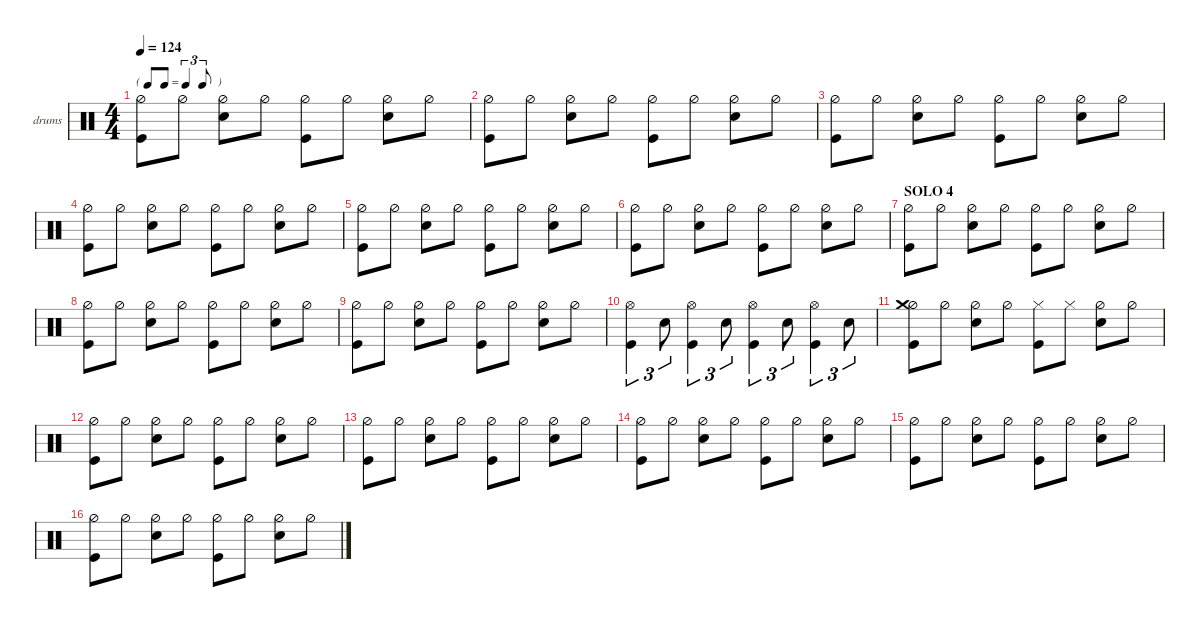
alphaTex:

\defaultSystemsLayout 4
\hideDynamics
\bracketExtendMode nobrackets
\firstSystemTrackNameOrientation horizontal
\otherSystemsTrackNameOrientation horizontal
\track ("drums" "drums") {instrument percussion}
\staff {score}
\articulation defaults
\ts (4 4)
\tf triplet8th
\tempo 124
\clef neutral
\scale
1.06392
\ks aminor
("Kick (hit)" "Hi-Hat (half)").8{dy mf} "Hi-Hat (half)".8 ("Hi-Hat (half)" "Snare (hit) 2").8 "Hi-Hat (half)".8 ("Kick (hit)" "Hi-Hat (half)").8 "Hi-Hat (half)".8 ("Hi-Hat (half)" "Snare (hit) 2").8 "Hi-Hat (half)".8 |
\scale
0.978695 ("Kick (hit)" "Hi-Hat (half)").8 "Hi-Hat (half)".8 ("Hi-Hat (half)" "Snare (hit) 2").8 "Hi-Hat (half)".8 ("Kick (hit)" "Hi-Hat (half)").8 "Hi-Hat (half)".8 ("Hi-Hat (half)" "Snare (hit) 2").8 "Hi-Hat (half)".8 |
\scale
0.978695 ("Kick (hit)" "Hi-Hat (half)").8 "Hi-Hat (half)".8 ("Hi-Hat (half)" "Snare (hit) 2").8 "Hi-Hat (half)".8 ("Kick (hit)" "Hi-Hat (half)").8 "Hi-Hat (half)".8 ("Hi-Hat (half)" "Snare (hit) 2").8 "Hi-Hat (half)".8 |
\scale
0.978695 ("Kick (hit)" "Hi-Hat (half)").8 "Hi-Hat (half)".8 ("Hi-Hat (half)" "Snare (hit) 2").8 "Hi-Hat (half)".8 ("Kick (hit)" "Hi-Hat (half)").8 "Hi-Hat (half)".8 ("Hi-Hat (half)" "Snare (hit) 2").8 "Hi-Hat (half)".8 |
\scale
1.05949 ("Kick (hit)" "Hi-Hat (half)").8 "Hi-Hat (half)".8 ("Hi-Hat (half)" "Snare (hit) 2").8 "Hi-Hat (half)".8 ("Kick (hit)" "Hi-Hat (half)").8 "Hi-Hat (half)".8 ("Hi-Hat (half)" "Snare (hit) 2").8 "Hi-Hat (half)".8 |
\scale
0.991958 ("Kick (hit)" "Hi-Hat (half)").8 "Hi-Hat (half)".8 ("Hi-Hat (half)" "Snare (hit) 2").8 "Hi-Hat (half)".8 ("Kick (hit)" "Hi-Hat (half)").8 "Hi-Hat (half)".8 ("Hi-Hat (half)" "Snare (hit) 2").8 "Hi-Hat (half)".8 |
\section ("" "SOLO 4")
\scale
0.974274 ("Kick (hit)" "Hi-Hat (half)").8 "Hi-Hat (half)".8 ("Hi-Hat (half)" "Snare (hit) 2").8 "Hi-Hat (half)".8 ("Kick (hit)" "Hi-Hat (half)").8 "Hi-Hat (half)".8 ("Hi-Hat (half)" "Snare (hit) 2").8 "Hi-Hat (half)".8 |
\scale
0.974274 ("Kick (hit)" "Hi-Hat (half)").8 "Hi-Hat (half)".8 ("Hi-Hat (half)" "Snare (hit) 2").8 "Hi-Hat (half)".8 ("Kick (hit)" "Hi-Hat (half)").8 "Hi-Hat (half)".8 ("Hi-Hat (half)" "Snare (hit) 2").8 "Hi-Hat (half)".8 |
\scale
1.06392 ("Kick (hit)" "Hi-Hat (half)").8 "Hi-Hat (half)".8 ("Hi-Hat (half)" "Snare (hit) 2").8 "Hi-Hat (half)".8 ("Kick (hit)" "Hi-Hat (half)").8 "Hi-Hat (half)".8 ("Hi-Hat (half)" "Snare (hit) 2").8 "Hi-Hat (half)".8 |
\scale
0.978695 ("Hi-Hat (open)" "Kick (hit)").4{tu (3 2)} "Snare (hit) 2".8{tu (3 2) dy p} ("Hi-Hat (open)" "Kick (hit)").4{tu (3 2) dy mf} "Snare (hit) 2".8{tu (3 2) dy p} ("Hi-Hat (open)" "Kick (hit)").4{tu (3 2) dy mf} "Snare (hit) 2".8{tu (3 2) dy p} ("Hi-Hat (open)" "Kick (hit)").4{tu (3 2) dy mf} "Snare (hit) 2".8{tu (3 2) dy p} |
\scale
0.978695 ("Kick (hit)" "Hi-Hat (half)" "Crash medium (hit)").8{dy mf} "Hi-Hat (half)".8 ("Hi-Hat (half)" "Snare (hit) 2").8 "Hi-Hat (half)".8 ("Kick (hit)" "Hi-Hat (closed)").8 "Hi-Hat (closed)".8 ("Hi-Hat (half)" "Snare (hit) 2").8 "Hi-Hat (half)".8 |
\scale
0.978695 ("Kick (hit)" "Hi-Hat (half)").8 "Hi-Hat (half)".8 ("Hi-Hat (half)" "Snare (hit) 2").8 "Hi-Hat (half)".8 ("Kick (hit)" "Hi-Hat (half)").8 "Hi-Hat (half)".8 ("Hi-Hat (half)" "Snare (hit) 2").8 "Hi-Hat (half)".8 |
\scale
1.06392 ("Kick (hit)" "Hi-Hat (half)").8 "Hi-Hat (half)".8 ("Hi-Hat (half)" "Snare (hit) 2").8 "Hi-Hat (half)".8 ("Kick (hit)" "Hi-Hat (half)").8 "Hi-Hat (half)".8 ("Hi-Hat (half)" "Snare (hit) 2").8 "Hi-Hat (half)".8 |
\scale
0.978695 ("Kick (hit)" "Hi-Hat (half)").8 "Hi-Hat (half)".8 ("Hi-Hat (half)" "Snare (hit) 2").8 "Hi-Hat (half)".8 ("Kick (hit)" "Hi-Hat (half)").8 "Hi-Hat (half)".8 ("Hi-Hat (half)" "Snare (hit) 2").8 "Hi-Hat (half)".8 |
\scale
0.978695 ("Kick (hit)" "Hi-Hat (half)").8 "Hi-Hat (half)".8 ("Hi-Hat (half)" "Snare (hit) 2").8 "Hi-Hat (half)".8 ("Kick (hit)" "Hi-Hat (half)").8 "Hi-Hat (half)".8 ("Hi-Hat (half)" "Snare (hit) 2").8 "Hi-Hat (half)".8 |
\scale
0.978695 ("Kick (hit)" "Hi-Hat (half)").8 "Hi-Hat (half)".8 ("Hi-Hat (half)" "Snare (hit) 2").8 "Hi-Hat (half)".8 ("Kick (hit)" "Hi-Hat (half)").8 "Hi-Hat (half)".8 ("Hi-Hat (half)" "Snare (hit) 2").8 "Hi-Hat (half)".8
